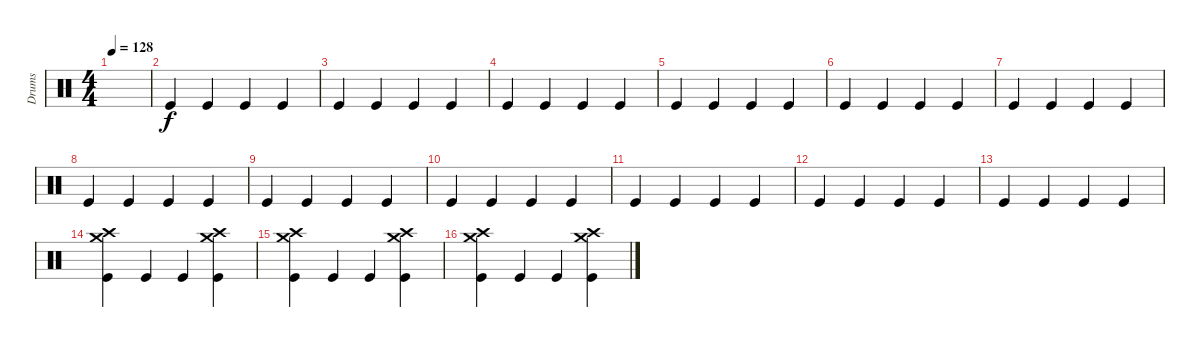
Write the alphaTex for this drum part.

\track ("Drums" "Drums") {instrument percussion}
\staff {score}
\articulation defaults
\ts (4 4)
\tempo 128
\clef neutral
\ks c
|
"Kick (hit)".4 "Kick (hit)".4 "Kick (hit)".4 "Kick (hit)".4 |
"Kick (hit)".4 "Kick (hit)".4 "Kick (hit)".4 "Kick (hit)".4 |
"Kick (hit)".4 "Kick (hit)".4 "Kick (hit)".4 "Kick (hit)".4 |
"Kick (hit)".4 "Kick (hit)".4 "Kick (hit)".4 "Kick (hit)".4 |
"Kick (hit)".4 "Kick (hit)".4 "Kick (hit)".4 "Kick (hit)".4 |
"Kick (hit)".4 "Kick (hit)".4 "Kick (hit)".4 "Kick (hit)".4 |
"Kick (hit)".4 "Kick (hit)".4 "Kick (hit)".4 "Kick (hit)".4 |
"Kick (hit)".4 "Kick (hit)".4 "Kick (hit)".4 "Kick (hit)".4 |
"Kick (hit)".4 "Kick (hit)".4 "Kick (hit)".4 "Kick (hit)".4 |
"Kick (hit)".4 "Kick (hit)".4 "Kick (hit)".4 "Kick (hit)".4 |
"Kick (hit)".4 "Kick (hit)".4 "Kick (hit)".4 "Kick (hit)".4 |
"Kick (hit)".4 "Kick (hit)".4 "Kick (hit)".4 "Kick (hit)".4 |
("Crash medium (hit)" "Crash high (hit)" "Kick (hit)").4 "Kick (hit)".4 "Kick (hit)".4 ("Crash medium (hit)" "Crash high (hit)" "Kick (hit)").4 |
("Crash medium (hit)" "Crash high (hit)" "Kick (hit)").4 "Kick (hit)".4 "Kick (hit)".4 ("Crash medium (hit)" "Crash high (hit)" "Kick (hit)").4 |
("Crash medium (hit)" "Crash high (hit)" "Kick (hit)").4 "Kick (hit)".4 "Kick (hit)".4 ("Crash medium (hit)" "Crash high (hit)" "Kick (hit)").4
